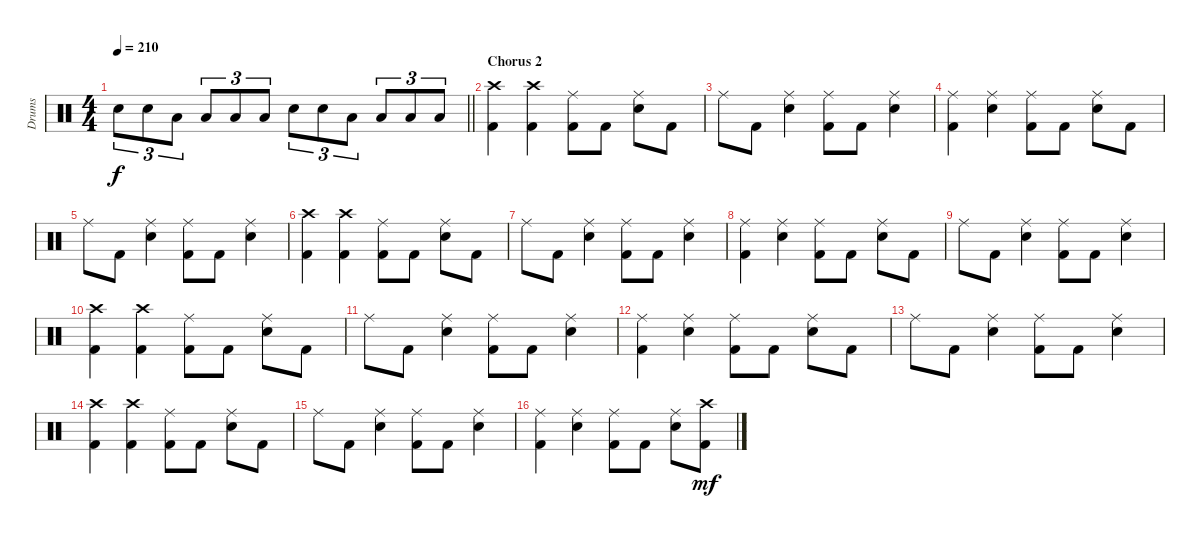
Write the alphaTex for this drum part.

\track ("Drums" "Drums") {instrument percussion}
\staff {score}
\articulation defaults
\ts (4 4)
\tempo 210
\clef neutral
\barLineRight lightlight
\ks c "Snare (hit) 2".8{tu (3 2) dy f} "Snare (hit) 2".8{tu (3 2)} "Low Tom (hit)".8{tu (3 2)} "Low Tom (hit)".8{tu (3 2)} "Low Floor Tom (hit)".8{tu (3 2)} "Low Floor Tom (hit)".8{tu (3 2)} "Snare (hit) 2".8{tu (3 2)} "Snare (hit) 2".8{tu (3 2)} "Low Tom (hit)".8{tu (3 2)} "Low Tom (hit)".8{tu (3 2)} "Low Floor Tom (hit)".8{tu (3 2)} "Low Floor Tom (hit)".8{tu (3 2)}
|
\section ("" "Chorus 2")
("Crash high (hit)" "Kick (hit) 2").4 ("Crash high (hit)" "Kick (hit) 2").4 ("Ride (middle)" "Kick (hit) 2").8 "Kick (hit) 2".8 ("Ride (middle)" "Snare (hit) 2").8 "Kick (hit) 2".8 |
"Ride (middle)".8 "Kick (hit) 2".8 ("Ride (middle)" "Snare (hit) 2").4 ("Ride (middle)" "Kick (hit) 2").8 "Kick (hit) 2".8 ("Ride (middle)" "Snare (hit) 2").4 |
("Ride (middle)" "Kick (hit) 2").4 ("Ride (middle)" "Snare (hit) 2").4 ("Ride (middle)" "Kick (hit) 2").8 "Kick (hit) 2".8 ("Ride (middle)" "Snare (hit) 2").8 "Kick (hit) 2".8 |
"Ride (middle)".8 "Kick (hit) 2".8 ("Ride (middle)" "Snare (hit) 2").4 ("Ride (middle)" "Kick (hit) 2").8 "Kick (hit) 2".8 ("Ride (middle)" "Snare (hit) 2").4 |
("Crash high (hit)" "Kick (hit) 2").4 ("Crash high (hit)" "Kick (hit) 2").4 ("Ride (middle)" "Kick (hit) 2").8 "Kick (hit) 2".8 ("Ride (middle)" "Snare (hit) 2").8 "Kick (hit) 2".8 |
"Ride (middle)".8 "Kick (hit) 2".8 ("Ride (middle)" "Snare (hit) 2").4 ("Ride (middle)" "Kick (hit) 2").8 "Kick (hit) 2".8 ("Ride (middle)" "Snare (hit) 2").4 |
("Ride (middle)" "Kick (hit) 2").4 ("Ride (middle)" "Snare (hit) 2").4 ("Ride (middle)" "Kick (hit) 2").8 "Kick (hit) 2".8 ("Ride (middle)" "Snare (hit) 2").8 "Kick (hit) 2".8 |
"Ride (middle)".8 "Kick (hit) 2".8 ("Ride (middle)" "Snare (hit) 2").4 ("Ride (middle)" "Kick (hit) 2").8 "Kick (hit) 2".8 ("Ride (middle)" "Snare (hit) 2").4 |
("Crash high (hit)" "Kick (hit) 2").4 ("Crash high (hit)" "Kick (hit) 2").4 ("Ride (middle)" "Kick (hit) 2").8 "Kick (hit) 2".8 ("Ride (middle)" "Snare (hit) 2").8 "Kick (hit) 2".8 |
"Ride (middle)".8 "Kick (hit) 2".8 ("Ride (middle)" "Snare (hit) 2").4 ("Ride (middle)" "Kick (hit) 2").8 "Kick (hit) 2".8 ("Ride (middle)" "Snare (hit) 2").4 |
("Ride (middle)" "Kick (hit) 2").4 ("Ride (middle)" "Snare (hit) 2").4 ("Ride (middle)" "Kick (hit) 2").8 "Kick (hit) 2".8 ("Ride (middle)" "Snare (hit) 2").8 "Kick (hit) 2".8 |
"Ride (middle)".8 "Kick (hit) 2".8 ("Ride (middle)" "Snare (hit) 2").4 ("Ride (middle)" "Kick (hit) 2").8 "Kick (hit) 2".8 ("Ride (middle)" "Snare (hit) 2").4 |
("Crash high (hit)" "Kick (hit) 2").4 ("Crash high (hit)" "Kick (hit) 2").4 ("Ride (middle)" "Kick (hit) 2").8 "Kick (hit) 2".8 ("Ride (middle)" "Snare (hit) 2").8 "Kick (hit) 2".8 |
"Ride (middle)".8 "Kick (hit) 2".8 ("Ride (middle)" "Snare (hit) 2").4 ("Ride (middle)" "Kick (hit) 2").8 "Kick (hit) 2".8 ("Ride (middle)" "Snare (hit) 2").4 |
("Ride (middle)" "Kick (hit) 2").4 ("Ride (middle)" "Snare (hit) 2").4 ("Ride (middle)" "Kick (hit) 2").8 "Kick (hit) 2".8 ("Ride (middle)" "Snare (hit) 2").8 ("Crash high (hit)" "Kick (hit) 2").8{dy mf}
